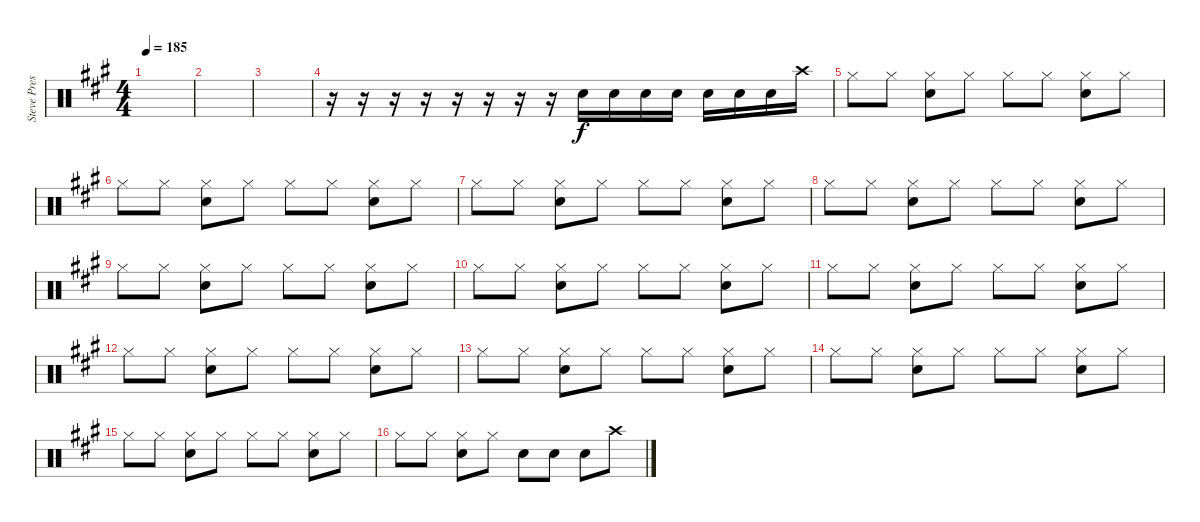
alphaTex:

\track ("Steve Preswhich" "Steve Pres") {instrument percussion}
\staff {score}
\articulation defaults
\ts (4 4)
\tempo 185
\clef neutral
\ks a
|
|
|
r.16 r.16 r.16 r.16 r.16 r.16 r.16 r.16 "Snare (hit) 2".16 "Snare (hit) 2".16 "Snare (hit) 2".16 "Snare (hit) 2".16 "Snare (hit) 2".16 "Snare (hit) 2".16 "Snare (hit) 2".16 "Crash high (hit)".16 |
"Hi-Hat (closed)".8 "Hi-Hat (closed)".8 ("Hi-Hat (closed)" "Electric Snare (hit)").8 "Hi-Hat (closed)".8 "Hi-Hat (closed)".8 "Hi-Hat (closed)".8 ("Hi-Hat (closed)" "Electric Snare (hit)").8 "Hi-Hat (closed)".8 |
"Hi-Hat (closed)".8 "Hi-Hat (closed)".8 ("Hi-Hat (closed)" "Electric Snare (hit)").8 "Hi-Hat (closed)".8 "Hi-Hat (closed)".8 "Hi-Hat (closed)".8 ("Hi-Hat (closed)" "Electric Snare (hit)").8 "Hi-Hat (closed)".8 |
"Hi-Hat (closed)".8 "Hi-Hat (closed)".8 ("Hi-Hat (closed)" "Electric Snare (hit)").8 "Hi-Hat (closed)".8 "Hi-Hat (closed)".8 "Hi-Hat (closed)".8 ("Hi-Hat (closed)" "Electric Snare (hit)").8 "Hi-Hat (closed)".8 |
"Hi-Hat (closed)".8 "Hi-Hat (closed)".8 ("Hi-Hat (closed)" "Electric Snare (hit)").8 "Hi-Hat (closed)".8 "Hi-Hat (closed)".8 "Hi-Hat (closed)".8 ("Hi-Hat (closed)" "Electric Snare (hit)").8 "Hi-Hat (closed)".8 |
"Hi-Hat (closed)".8 "Hi-Hat (closed)".8 ("Hi-Hat (closed)" "Electric Snare (hit)").8 "Hi-Hat (closed)".8 "Hi-Hat (closed)".8 "Hi-Hat (closed)".8 ("Hi-Hat (closed)" "Electric Snare (hit)").8 "Hi-Hat (closed)".8 |
"Hi-Hat (closed)".8 "Hi-Hat (closed)".8 ("Hi-Hat (closed)" "Electric Snare (hit)").8 "Hi-Hat (closed)".8 "Hi-Hat (closed)".8 "Hi-Hat (closed)".8 ("Hi-Hat (closed)" "Electric Snare (hit)").8 "Hi-Hat (closed)".8 |
"Hi-Hat (closed)".8 "Hi-Hat (closed)".8 ("Hi-Hat (closed)" "Electric Snare (hit)").8 "Hi-Hat (closed)".8 "Hi-Hat (closed)".8 "Hi-Hat (closed)".8 ("Hi-Hat (closed)" "Electric Snare (hit)").8 "Hi-Hat (closed)".8 |
"Hi-Hat (closed)".8 "Hi-Hat (closed)".8 ("Hi-Hat (closed)" "Electric Snare (hit)").8 "Hi-Hat (closed)".8 "Hi-Hat (closed)".8 "Hi-Hat (closed)".8 ("Hi-Hat (closed)" "Electric Snare (hit)").8 "Hi-Hat (closed)".8 |
"Hi-Hat (closed)".8 "Hi-Hat (closed)".8 ("Hi-Hat (closed)" "Electric Snare (hit)").8 "Hi-Hat (closed)".8 "Hi-Hat (closed)".8 "Hi-Hat (closed)".8 ("Hi-Hat (closed)" "Electric Snare (hit)").8 "Hi-Hat (closed)".8 |
"Hi-Hat (closed)".8 "Hi-Hat (closed)".8 ("Hi-Hat (closed)" "Electric Snare (hit)").8 "Hi-Hat (closed)".8 "Hi-Hat (closed)".8 "Hi-Hat (closed)".8 ("Hi-Hat (closed)" "Electric Snare (hit)").8 "Hi-Hat (closed)".8 |
"Hi-Hat (closed)".8 "Hi-Hat (closed)".8 ("Hi-Hat (closed)" "Electric Snare (hit)").8 "Hi-Hat (closed)".8 "Hi-Hat (closed)".8 "Hi-Hat (closed)".8 ("Hi-Hat (closed)" "Electric Snare (hit)").8 "Hi-Hat (closed)".8 |
"Hi-Hat (closed)".8 "Hi-Hat (closed)".8 ("Hi-Hat (closed)" "Electric Snare (hit)").8 "Hi-Hat (closed)".8 "Snare (hit) 2".8 "Snare (hit) 2".8 "Snare (hit) 2".8 "Crash high (hit)".8
